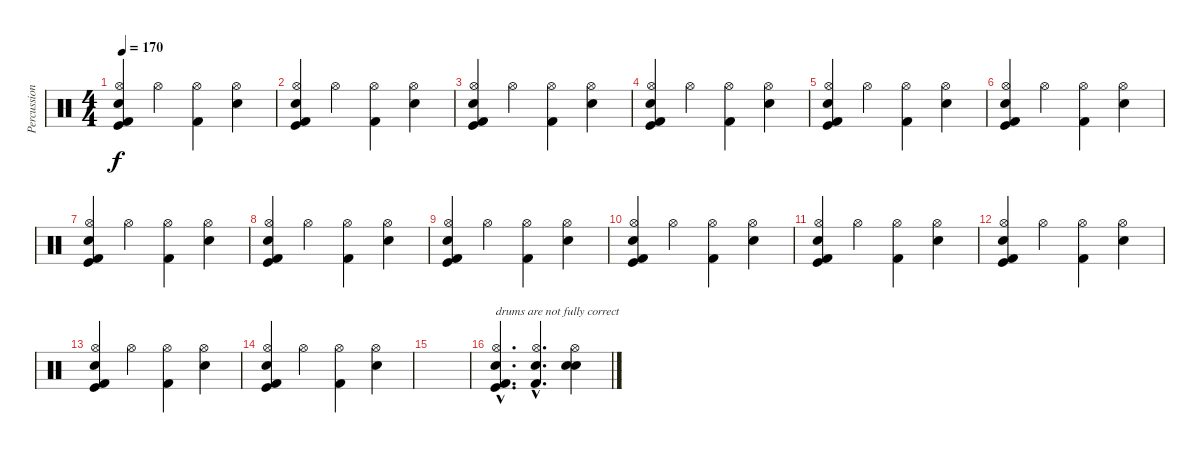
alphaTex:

\track ("Percussion" "Percussion") {instrument percussion}
\staff {score}
\articulation defaults
\ts (4 4)
\tempo 170
\clef neutral
\ks c
("Kick (hit) 2" "Hi-Hat (open)" "Kick (hit)" "Snare (hit) 2").4{dy f} "Hi-Hat (open)".4 ("Kick (hit) 2" "Hi-Hat (open)").4 ("Electric Snare (hit)" "Hi-Hat (open)").4 |
("Kick (hit) 2" "Hi-Hat (open)" "Kick (hit)" "Snare (hit) 2").4 "Hi-Hat (open)".4 ("Kick (hit) 2" "Hi-Hat (open)").4 ("Electric Snare (hit)" "Hi-Hat (open)").4 |
("Kick (hit) 2" "Hi-Hat (open)" "Kick (hit)" "Snare (hit) 2").4 "Hi-Hat (open)".4 ("Kick (hit) 2" "Hi-Hat (open)").4 ("Electric Snare (hit)" "Hi-Hat (open)").4 |
("Kick (hit) 2" "Hi-Hat (open)" "Kick (hit)" "Snare (hit) 2").4 "Hi-Hat (open)".4 ("Kick (hit) 2" "Hi-Hat (open)").4 ("Electric Snare (hit)" "Hi-Hat (open)").4 |
("Kick (hit) 2" "Hi-Hat (open)" "Kick (hit)" "Snare (hit) 2").4 "Hi-Hat (open)".4 ("Kick (hit) 2" "Hi-Hat (open)").4 ("Electric Snare (hit)" "Hi-Hat (open)").4 |
("Kick (hit) 2" "Hi-Hat (open)" "Kick (hit)" "Snare (hit) 2").4 "Hi-Hat (open)".4 ("Kick (hit) 2" "Hi-Hat (open)").4 ("Electric Snare (hit)" "Hi-Hat (open)").4 |
("Kick (hit) 2" "Hi-Hat (open)" "Kick (hit)" "Snare (hit) 2").4 "Hi-Hat (open)".4 ("Kick (hit) 2" "Hi-Hat (open)").4 ("Electric Snare (hit)" "Hi-Hat (open)").4 |
("Kick (hit) 2" "Hi-Hat (open)" "Kick (hit)" "Snare (hit) 2").4 "Hi-Hat (open)".4 ("Kick (hit) 2" "Hi-Hat (open)").4 ("Electric Snare (hit)" "Hi-Hat (open)").4 |
("Kick (hit) 2" "Hi-Hat (open)" "Kick (hit)" "Snare (hit) 2").4 "Hi-Hat (open)".4 ("Kick (hit) 2" "Hi-Hat (open)").4 ("Electric Snare (hit)" "Hi-Hat (open)").4 |
("Kick (hit) 2" "Hi-Hat (open)" "Kick (hit)" "Snare (hit) 2").4 "Hi-Hat (open)".4 ("Kick (hit) 2" "Hi-Hat (open)").4 ("Electric Snare (hit)" "Hi-Hat (open)").4 |
("Kick (hit) 2" "Hi-Hat (open)" "Kick (hit)" "Snare (hit) 2").4 "Hi-Hat (open)".4 ("Kick (hit) 2" "Hi-Hat (open)").4 ("Electric Snare (hit)" "Hi-Hat (open)").4 |
("Kick (hit) 2" "Hi-Hat (open)" "Kick (hit)" "Snare (hit) 2").4 "Hi-Hat (open)".4 ("Kick (hit) 2" "Hi-Hat (open)").4 ("Electric Snare (hit)" "Hi-Hat (open)").4 |
("Kick (hit) 2" "Hi-Hat (open)" "Kick (hit)" "Snare (hit) 2").4 "Hi-Hat (open)".4 ("Kick (hit) 2" "Hi-Hat (open)").4 ("Electric Snare (hit)" "Hi-Hat (open)").4 |
("Kick (hit) 2" "Hi-Hat (open)" "Kick (hit)" "Snare (hit) 2").4 "Hi-Hat (open)".4 ("Kick (hit) 2" "Hi-Hat (open)").4 ("Electric Snare (hit)" "Hi-Hat (open)").4 |
|
("Kick (hit) 2"{hac} "Hi-Hat (open)"{hac} "Kick (hit)"{hac} "Snare (hit) 2"{hac}).4{d txt "drums are not fully correct"} ("Kick (hit) 2"{hac} "Hi-Hat (open)"{hac} "Snare (hit) 2"{hac}).4{d} ("Electric Snare (hit)" "Hi-Hat (open)" "Snare (hit) 2").4
